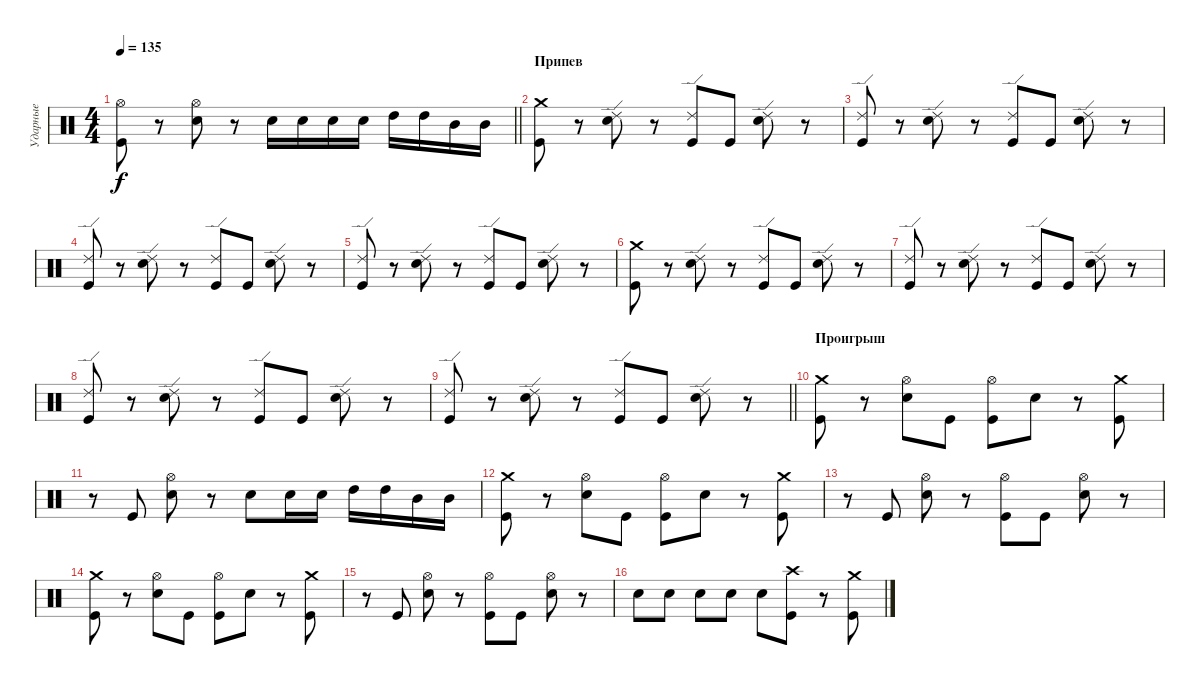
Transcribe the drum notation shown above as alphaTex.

\track ("Ударные" "Ударные") {instrument percussion}
\staff {score}
\articulation defaults
\ts (4 4)
\tempo 135
\clef neutral
\barLineRight lightlight
\ks c
("Hi-Hat (open)" "Kick (hit)").8{dy f} r.8 ("Hi-Hat (open)" "Electric Snare (hit)").8 r.8 "Electric Snare (hit)".16 "Electric Snare (hit)".16 "Electric Snare (hit)".16 "Electric Snare (hit)".16 "High Tom (hit)".16 "High Tom (hit)".16 "Mid Tom (hit)".16 "Mid Tom (hit)".16 |
\section ("" "Припев")
("Crash medium (hit)" "Kick (hit)").8 r.8 ("Ride (edge) 2" "Electric Snare (hit)").8 r.8 ("Ride (edge) 2" "Kick (hit)").8 "Kick (hit)".8 ("Ride (edge) 2" "Electric Snare (hit)").8 r.8 |
("Ride (edge) 2" "Kick (hit)").8 r.8 ("Ride (edge) 2" "Electric Snare (hit)").8 r.8 ("Ride (edge) 2" "Kick (hit)").8 "Kick (hit)".8 ("Ride (edge) 2" "Electric Snare (hit)").8 r.8 |
("Ride (edge) 2" "Kick (hit)").8 r.8 ("Ride (edge) 2" "Electric Snare (hit)").8 r.8 ("Ride (edge) 2" "Kick (hit)").8 "Kick (hit)".8 ("Ride (edge) 2" "Electric Snare (hit)").8 r.8 |
("Ride (edge) 2" "Kick (hit)").8 r.8 ("Ride (edge) 2" "Electric Snare (hit)").8 r.8 ("Ride (edge) 2" "Kick (hit)").8 "Kick (hit)".8 ("Ride (edge) 2" "Electric Snare (hit)").8 r.8 |
("Crash medium (hit)" "Kick (hit)").8 r.8 ("Ride (edge) 2" "Electric Snare (hit)").8 r.8 ("Ride (edge) 2" "Kick (hit)").8 "Kick (hit)".8 ("Ride (edge) 2" "Electric Snare (hit)").8 r.8 |
("Ride (edge) 2" "Kick (hit)").8 r.8 ("Ride (edge) 2" "Electric Snare (hit)").8 r.8 ("Ride (edge) 2" "Kick (hit)").8 "Kick (hit)".8 ("Ride (edge) 2" "Electric Snare (hit)").8 r.8 |
("Ride (edge) 2" "Kick (hit)").8 r.8 ("Ride (edge) 2" "Electric Snare (hit)").8 r.8 ("Ride (edge) 2" "Kick (hit)").8 "Kick (hit)".8 ("Ride (edge) 2" "Electric Snare (hit)").8 r.8 |
\barLineRight lightlight
("Ride (edge) 2" "Kick (hit)").8 r.8 ("Ride (edge) 2" "Electric Snare (hit)").8 r.8 ("Ride (edge) 2" "Kick (hit)").8 "Kick (hit)".8 ("Ride (edge) 2" "Electric Snare (hit)").8 r.8 |
\section ("" "Проигрыш")
("Crash medium (hit)" "Kick (hit)").8 r.8 ("Hi-Hat (open)" "Electric Snare (hit)").8 "Kick (hit)".8 ("Hi-Hat (open)" "Kick (hit)").8 "Electric Snare (hit)".8 r.8 ("Crash medium (hit)" "Kick (hit)").8 |
r.8 "Kick (hit)".8 ("Hi-Hat (open)" "Electric Snare (hit)").8 r.8 "Electric Snare (hit)".8 "Electric Snare (hit)".16 "Electric Snare (hit)".16 "High Tom (hit)".16 "High Tom (hit)".16 "Mid Tom (hit)".16 "Mid Tom (hit)".16 |
("Crash medium (hit)" "Kick (hit)").8 r.8 ("Hi-Hat (open)" "Electric Snare (hit)").8 "Kick (hit)".8 ("Hi-Hat (open)" "Kick (hit)").8 "Electric Snare (hit)".8 r.8 ("Crash medium (hit)" "Kick (hit)").8 |
r.8 "Kick (hit)".8 ("Hi-Hat (open)" "Electric Snare (hit)").8 r.8 ("Hi-Hat (open)" "Kick (hit)").8 "Kick (hit)".8 ("Hi-Hat (open)" "Electric Snare (hit)").8 r.8 |
("Crash medium (hit)" "Kick (hit)").8 r.8 ("Hi-Hat (open)" "Electric Snare (hit)").8 "Kick (hit)".8 ("Hi-Hat (open)" "Kick (hit)").8 "Electric Snare (hit)".8 r.8 ("Crash medium (hit)" "Kick (hit)").8 |
r.8 "Kick (hit)".8 ("Hi-Hat (open)" "Electric Snare (hit)").8 r.8 ("Hi-Hat (open)" "Kick (hit)").8 "Kick (hit)".8 ("Hi-Hat (open)" "Electric Snare (hit)").8 r.8 |
"Electric Snare (hit)".8 "Electric Snare (hit)".8 "Electric Snare (hit)".8 "Electric Snare (hit)".8 "Electric Snare (hit)".8 ("Crash high (hit)" "Kick (hit)").8 r.8 ("Crash medium (hit)" "Kick (hit)").8
